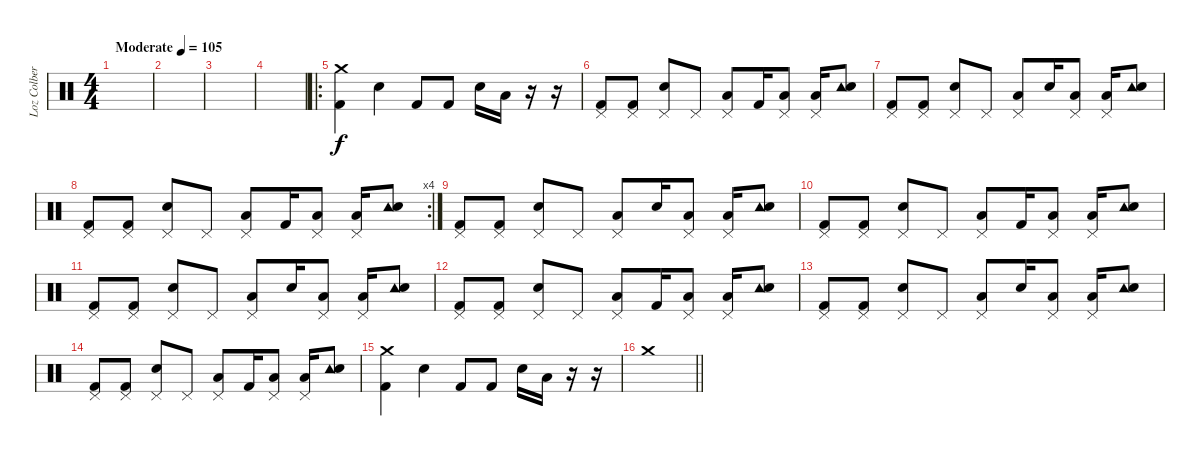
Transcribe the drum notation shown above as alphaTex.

\track ("Loz Colbert" "Loz Colber") {instrument percussion}
\staff {score}
\articulation defaults
\ts (4 4)
\tempo (105 "Moderate")
\clef neutral
\ks c
|
|
|
|
\ro
("Crash medium (hit)" "Kick (hit) 2").4 "Snare (hit) 2".4 "Kick (hit) 2".8 "Kick (hit) 2".8 "Snare (hit) 2".16 "Low Tom (hit)".16 r.16 r.16 |
("Pedal Hi-Hat (hit)" "Kick (hit) 2").8 ("Pedal Hi-Hat (hit)" "Kick (hit) 2").8 ("Pedal Hi-Hat (hit)" "Snare (hit) 2").8 "Pedal Hi-Hat (hit)".8 ("Pedal Hi-Hat (hit)" "Low Tom (hit)").8 "Kick (hit) 2".16 ("Pedal Hi-Hat (hit)" "Low Tom (hit)").8 ("Pedal Hi-Hat (hit)" "Low Tom (hit)").16 ("Tambourine (hit)" "Snare (hit) 2").8 |
("Pedal Hi-Hat (hit)" "Kick (hit) 2").8 ("Pedal Hi-Hat (hit)" "Kick (hit) 2").8 ("Pedal Hi-Hat (hit)" "Snare (hit) 2").8 "Pedal Hi-Hat (hit)".8 ("Pedal Hi-Hat (hit)" "Low Tom (hit)").8 "Snare (hit) 2".16 ("Pedal Hi-Hat (hit)" "Low Tom (hit)").8 ("Pedal Hi-Hat (hit)" "Low Tom (hit)").16 ("Tambourine (hit)" "Snare (hit) 2").8 |
\rc 4
("Pedal Hi-Hat (hit)" "Kick (hit) 2").8 ("Pedal Hi-Hat (hit)" "Kick (hit) 2").8 ("Pedal Hi-Hat (hit)" "Snare (hit) 2").8 "Pedal Hi-Hat (hit)".8 ("Pedal Hi-Hat (hit)" "Low Tom (hit)").8 "Kick (hit) 2".16 ("Pedal Hi-Hat (hit)" "Low Tom (hit)").8 ("Pedal Hi-Hat (hit)" "Low Tom (hit)").16 ("Tambourine (hit)" "Snare (hit) 2").8 |
("Pedal Hi-Hat (hit)" "Kick (hit) 2").8 ("Pedal Hi-Hat (hit)" "Kick (hit) 2").8 ("Pedal Hi-Hat (hit)" "Snare (hit) 2").8 "Pedal Hi-Hat (hit)".8 ("Pedal Hi-Hat (hit)" "Low Tom (hit)").8 "Snare (hit) 2".16 ("Pedal Hi-Hat (hit)" "Low Tom (hit)").8 ("Pedal Hi-Hat (hit)" "Low Tom (hit)").16 ("Tambourine (hit)" "Snare (hit) 2").8 |
("Pedal Hi-Hat (hit)" "Kick (hit) 2").8 ("Pedal Hi-Hat (hit)" "Kick (hit) 2").8 ("Pedal Hi-Hat (hit)" "Snare (hit) 2").8 "Pedal Hi-Hat (hit)".8 ("Pedal Hi-Hat (hit)" "Low Tom (hit)").8 "Kick (hit) 2".16 ("Pedal Hi-Hat (hit)" "Low Tom (hit)").8 ("Pedal Hi-Hat (hit)" "Low Tom (hit)").16 ("Tambourine (hit)" "Snare (hit) 2").8 |
("Pedal Hi-Hat (hit)" "Kick (hit) 2").8 ("Pedal Hi-Hat (hit)" "Kick (hit) 2").8 ("Pedal Hi-Hat (hit)" "Snare (hit) 2").8 "Pedal Hi-Hat (hit)".8 ("Pedal Hi-Hat (hit)" "Low Tom (hit)").8 "Snare (hit) 2".16 ("Pedal Hi-Hat (hit)" "Low Tom (hit)").8 ("Pedal Hi-Hat (hit)" "Low Tom (hit)").16 ("Tambourine (hit)" "Snare (hit) 2").8 |
("Pedal Hi-Hat (hit)" "Kick (hit) 2").8 ("Pedal Hi-Hat (hit)" "Kick (hit) 2").8 ("Pedal Hi-Hat (hit)" "Snare (hit) 2").8 "Pedal Hi-Hat (hit)".8 ("Pedal Hi-Hat (hit)" "Low Tom (hit)").8 "Kick (hit) 2".16 ("Pedal Hi-Hat (hit)" "Low Tom (hit)").8 ("Pedal Hi-Hat (hit)" "Low Tom (hit)").16 ("Tambourine (hit)" "Snare (hit) 2").8 |
("Pedal Hi-Hat (hit)" "Kick (hit) 2").8 ("Pedal Hi-Hat (hit)" "Kick (hit) 2").8 ("Pedal Hi-Hat (hit)" "Snare (hit) 2").8 "Pedal Hi-Hat (hit)".8 ("Pedal Hi-Hat (hit)" "Low Tom (hit)").8 "Snare (hit) 2".16 ("Pedal Hi-Hat (hit)" "Low Tom (hit)").8 ("Pedal Hi-Hat (hit)" "Low Tom (hit)").16 ("Tambourine (hit)" "Snare (hit) 2").8 |
("Pedal Hi-Hat (hit)" "Kick (hit) 2").8 ("Pedal Hi-Hat (hit)" "Kick (hit) 2").8 ("Pedal Hi-Hat (hit)" "Snare (hit) 2").8 "Pedal Hi-Hat (hit)".8 ("Pedal Hi-Hat (hit)" "Low Tom (hit)").8 "Kick (hit) 2".16 ("Pedal Hi-Hat (hit)" "Low Tom (hit)").8 ("Pedal Hi-Hat (hit)" "Low Tom (hit)").16 ("Tambourine (hit)" "Snare (hit) 2").8 |
("Crash medium (hit)" "Kick (hit) 2").4 "Snare (hit) 2".4 "Kick (hit) 2".8 "Kick (hit) 2".8 "Snare (hit) 2".16 "Low Tom (hit)".16 r.16 r.16 |
\barLineRight lightlight "Crash medium (hit)".1
